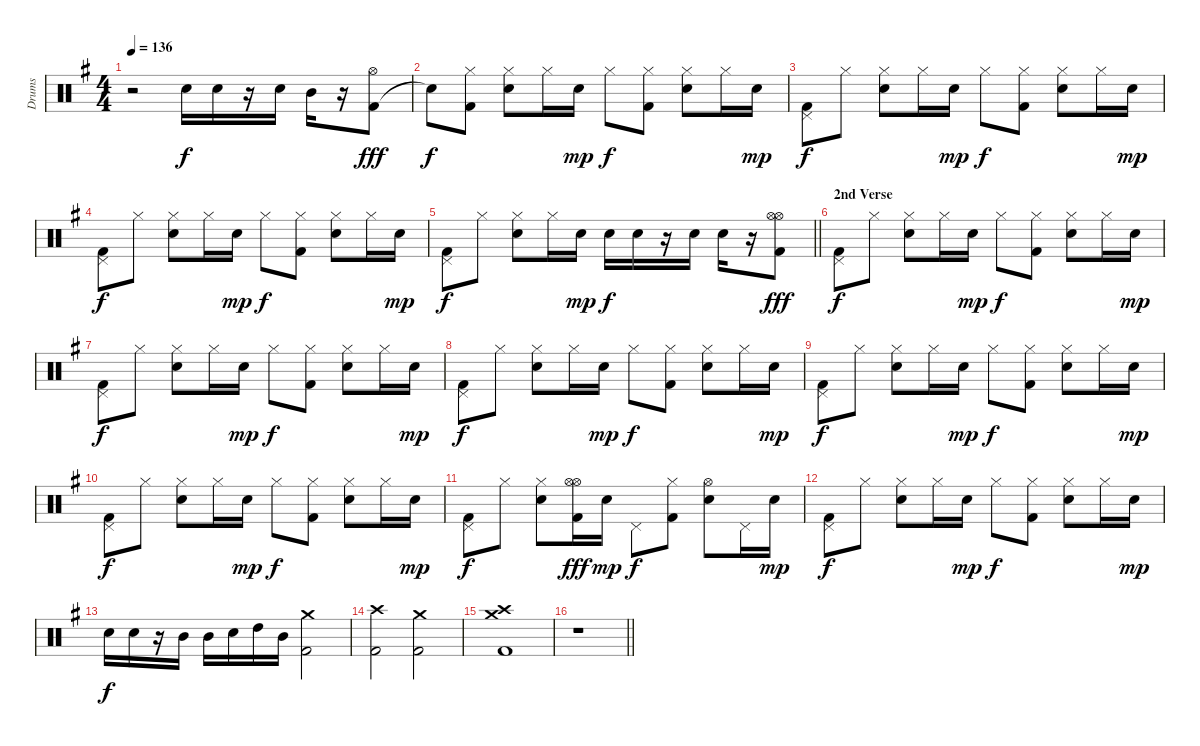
\track ("Drums" "Drums") {instrument percussion}
\staff {score}
\articulation defaults
\ts (4 4)
\tempo 136
\clef neutral
\ks g
r.2{dy f} "Snare (hit) 2".16 "Snare (hit) 2".16 r.16 "Snare (hit) 2".16 "Mid Tom (hit)".16 r.16 ("Kick (hit) 2" "Hi-Hat (open)").8{dy fff} |
"Snare (hit)"{t}.8{dy f} ("Kick (hit) 2" "Hi-Hat (closed)").8 ("Snare (hit) 2" "Hi-Hat (closed)").8 "Hi-Hat (closed)".16 "Snare (hit) 2".16{dy mp} "Hi-Hat (closed)".8{dy f} ("Kick (hit) 2" "Hi-Hat (closed)").8 ("Snare (hit) 2" "Hi-Hat (closed)").8 "Hi-Hat (closed)".16 "Snare (hit) 2".16{dy mp} |
("Kick (hit) 2" "Pedal Hi-Hat (hit)").8{dy f} "Hi-Hat (closed)".8 ("Snare (hit) 2" "Hi-Hat (closed)").8 "Hi-Hat (closed)".16 "Snare (hit) 2".16{dy mp} "Hi-Hat (closed)".8{dy f} ("Kick (hit) 2" "Hi-Hat (closed)").8 ("Snare (hit) 2" "Hi-Hat (closed)").8 "Hi-Hat (closed)".16 "Snare (hit) 2".16{dy mp} |
("Kick (hit) 2" "Pedal Hi-Hat (hit)").8{dy f} "Hi-Hat (closed)".8 ("Snare (hit) 2" "Hi-Hat (closed)").8 "Hi-Hat (closed)".16 "Snare (hit) 2".16{dy mp} "Hi-Hat (closed)".8{dy f} ("Kick (hit) 2" "Hi-Hat (closed)").8 ("Snare (hit) 2" "Hi-Hat (closed)").8 "Hi-Hat (closed)".16 "Snare (hit) 2".16{dy mp} |
\barLineRight lightlight
("Kick (hit) 2" "Pedal Hi-Hat (hit)").8{dy f} "Hi-Hat (closed)".8 ("Snare (hit) 2" "Hi-Hat (closed)").8 "Hi-Hat (closed)".16 "Snare (hit) 2".16{dy mp} "Snare (hit) 2".16{dy f} "Snare (hit) 2".16 r.16 "Snare (hit) 2".16 "Snare (hit) 2".16 r.16 ("Kick (hit) 2" "Hi-Hat (open)" "Hi-Hat (open)").8{dy fff} |
\section ("" "2nd Verse")
("Kick (hit) 2" "Pedal Hi-Hat (hit)").8{dy f} "Hi-Hat (closed)".8 ("Snare (hit) 2" "Hi-Hat (closed)").8 "Hi-Hat (closed)".16 "Snare (hit) 2".16{dy mp} "Hi-Hat (closed)".8{dy f} ("Kick (hit) 2" "Hi-Hat (closed)").8 ("Snare (hit) 2" "Hi-Hat (closed)").8 "Hi-Hat (closed)".16 "Snare (hit) 2".16{dy mp} |
("Kick (hit) 2" "Pedal Hi-Hat (hit)").8{dy f} "Hi-Hat (closed)".8 ("Snare (hit) 2" "Hi-Hat (closed)").8 "Hi-Hat (closed)".16 "Snare (hit) 2".16{dy mp} "Hi-Hat (closed)".8{dy f} ("Kick (hit) 2" "Hi-Hat (closed)").8 ("Snare (hit) 2" "Hi-Hat (closed)").8 "Hi-Hat (closed)".16 "Snare (hit) 2".16{dy mp} |
("Kick (hit) 2" "Pedal Hi-Hat (hit)").8{dy f} "Hi-Hat (closed)".8 ("Snare (hit) 2" "Hi-Hat (closed)").8 "Hi-Hat (closed)".16 "Snare (hit) 2".16{dy mp} "Hi-Hat (closed)".8{dy f} ("Kick (hit) 2" "Hi-Hat (closed)").8 ("Snare (hit) 2" "Hi-Hat (closed)").8 "Hi-Hat (closed)".16 "Snare (hit) 2".16{dy mp} |
("Kick (hit) 2" "Pedal Hi-Hat (hit)").8{dy f} "Hi-Hat (closed)".8 ("Snare (hit) 2" "Hi-Hat (closed)").8 "Hi-Hat (closed)".16 "Snare (hit) 2".16{dy mp} "Hi-Hat (closed)".8{dy f} ("Kick (hit) 2" "Hi-Hat (closed)").8 ("Snare (hit) 2" "Hi-Hat (closed)").8 "Hi-Hat (closed)".16 "Snare (hit) 2".16{dy mp} |
("Kick (hit) 2" "Pedal Hi-Hat (hit)").8{dy f} "Hi-Hat (closed)".8 ("Snare (hit) 2" "Hi-Hat (closed)").8 "Hi-Hat (closed)".16 "Snare (hit) 2".16{dy mp} "Hi-Hat (closed)".8{dy f} ("Kick (hit) 2" "Hi-Hat (closed)").8 ("Snare (hit) 2" "Hi-Hat (closed)").8 "Hi-Hat (closed)".16 "Snare (hit) 2".16{dy mp} |
("Kick (hit) 2" "Pedal Hi-Hat (hit)").8{dy f} "Hi-Hat (closed)".8 ("Snare (hit) 2" "Hi-Hat (closed)").8 ("Kick (hit) 2" "Hi-Hat (open)" "Hi-Hat (open)").16{dy fff} "Snare (hit) 2".16{dy mp} "Pedal Hi-Hat (hit)".8{dy f} ("Kick (hit) 2" "Hi-Hat (closed)").8 ("Snare (hit) 2" "Hi-Hat (open)").8 "Pedal Hi-Hat (hit)".16 "Snare (hit) 2".16{dy mp} |
("Kick (hit) 2" "Pedal Hi-Hat (hit)").8{dy f} "Hi-Hat (closed)".8 ("Snare (hit) 2" "Hi-Hat (closed)").8 "Hi-Hat (closed)".16 "Snare (hit) 2".16{dy mp} "Hi-Hat (closed)".8{dy f} ("Kick (hit) 2" "Hi-Hat (closed)").8 ("Snare (hit) 2" "Hi-Hat (closed)").8 "Hi-Hat (closed)".16 "Snare (hit) 2".16{dy mp} |
"Snare (hit) 2".16{dy f} "Snare (hit) 2".16 r.16 "Mid Tom (hit)".16 "Mid Tom (hit)".16 "Snare (hit) 2".16 "High Tom (hit)".16 "Mid Tom (hit)".16 ("Kick (hit) 2" "Crash medium (hit)").2 |
("Kick (hit) 2" "Crash high (hit)").2 ("Kick (hit) 2" "Crash medium (hit)").2 |
("Kick (hit) 2" "Crash medium (hit)" "Crash high (hit)").1 |
\barLineRight lightlight
r.1
